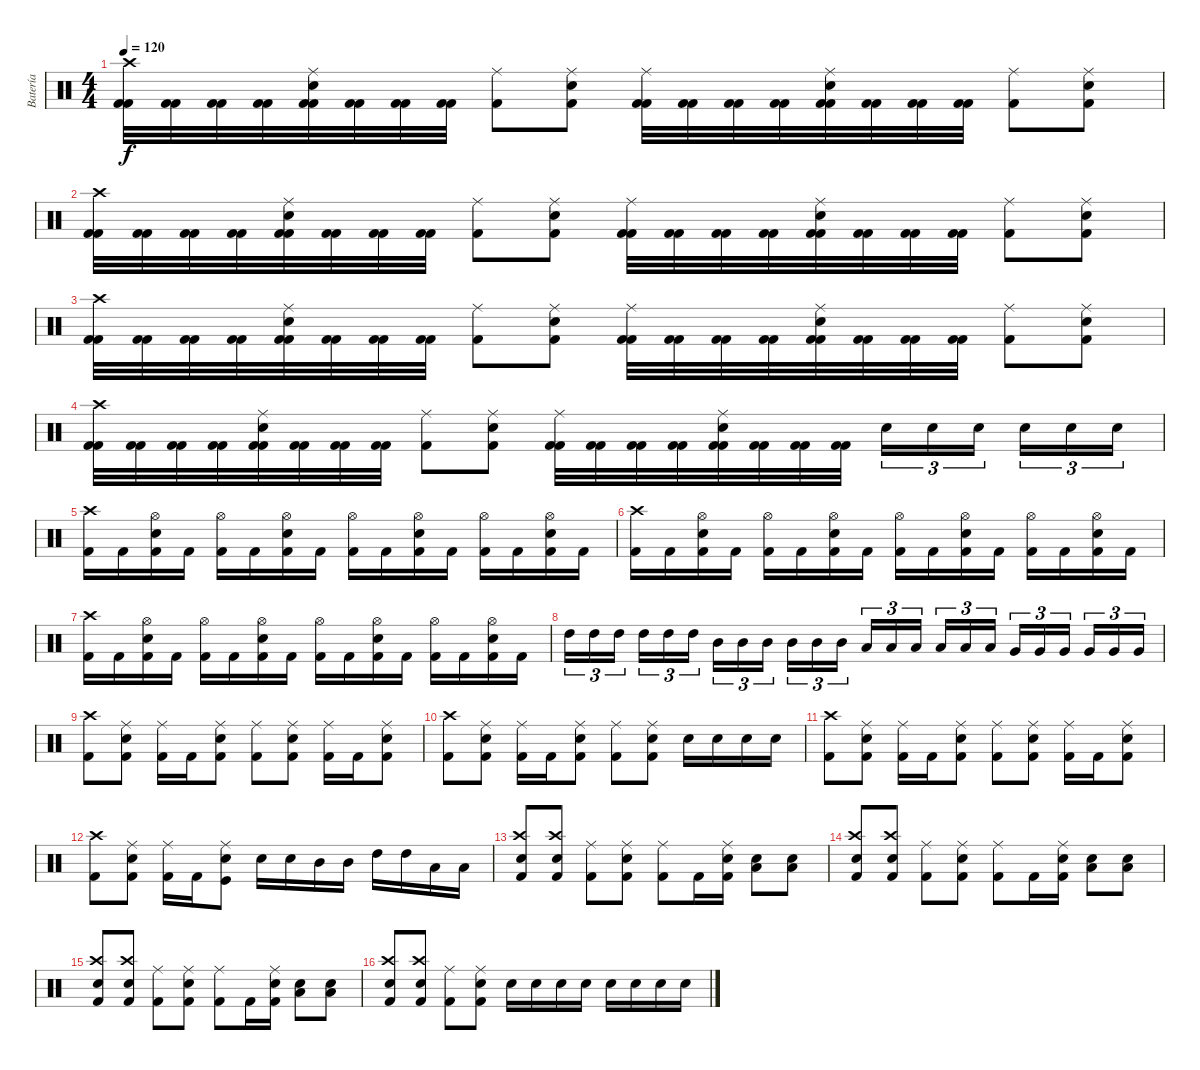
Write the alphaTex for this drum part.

\track ("Batería" "Batería") {instrument percussion}
\staff {score}
\articulation defaults
\ts (4 4)
\tempo 120
\clef neutral
\ks c
("Kick (hit) 2" "Crash high (hit)" "Kick (hit) 2").32{dy f} ("Kick (hit) 2" "Kick (hit) 2").32 ("Kick (hit) 2" "Kick (hit) 2").32 ("Kick (hit) 2" "Kick (hit) 2").32 ("Kick (hit) 2" "Ride (middle)" "Snare (hit) 2" "Kick (hit) 2").32 ("Kick (hit) 2" "Kick (hit) 2").32 ("Kick (hit) 2" "Kick (hit) 2").32 ("Kick (hit) 2" "Kick (hit) 2").32 ("Kick (hit) 2" "Ride (middle)").8 ("Kick (hit) 2" "Ride (middle)" "Snare (hit) 2").8 ("Kick (hit) 2" "Ride (middle)" "Kick (hit) 2").32 ("Kick (hit) 2" "Kick (hit) 2").32 ("Kick (hit) 2" "Kick (hit) 2").32 ("Kick (hit) 2" "Kick (hit) 2").32 ("Kick (hit) 2" "Ride (middle)" "Snare (hit) 2" "Kick (hit) 2").32 ("Kick (hit) 2" "Kick (hit) 2").32 ("Kick (hit) 2" "Kick (hit) 2").32 ("Kick (hit) 2" "Kick (hit) 2").32 ("Kick (hit) 2" "Ride (middle)").8 ("Kick (hit) 2" "Ride (middle)" "Snare (hit) 2").8 |
("Kick (hit) 2" "Crash high (hit)" "Kick (hit) 2").32 ("Kick (hit) 2" "Kick (hit) 2").32 ("Kick (hit) 2" "Kick (hit) 2").32 ("Kick (hit) 2" "Kick (hit) 2").32 ("Kick (hit) 2" "Ride (middle)" "Snare (hit) 2" "Kick (hit) 2").32 ("Kick (hit) 2" "Kick (hit) 2").32 ("Kick (hit) 2" "Kick (hit) 2").32 ("Kick (hit) 2" "Kick (hit) 2").32 ("Kick (hit) 2" "Ride (middle)").8 ("Kick (hit) 2" "Ride (middle)" "Snare (hit) 2").8 ("Kick (hit) 2" "Ride (middle)" "Kick (hit) 2").32 ("Kick (hit) 2" "Kick (hit) 2").32 ("Kick (hit) 2" "Kick (hit) 2").32 ("Kick (hit) 2" "Kick (hit) 2").32 ("Kick (hit) 2" "Ride (middle)" "Snare (hit) 2" "Kick (hit) 2").32 ("Kick (hit) 2" "Kick (hit) 2").32 ("Kick (hit) 2" "Kick (hit) 2").32 ("Kick (hit) 2" "Kick (hit) 2").32 ("Kick (hit) 2" "Ride (middle)").8 ("Kick (hit) 2" "Ride (middle)" "Snare (hit) 2").8 |
("Kick (hit) 2" "Crash high (hit)" "Kick (hit) 2").32 ("Kick (hit) 2" "Kick (hit) 2").32 ("Kick (hit) 2" "Kick (hit) 2").32 ("Kick (hit) 2" "Kick (hit) 2").32 ("Kick (hit) 2" "Ride (middle)" "Snare (hit) 2" "Kick (hit) 2").32 ("Kick (hit) 2" "Kick (hit) 2").32 ("Kick (hit) 2" "Kick (hit) 2").32 ("Kick (hit) 2" "Kick (hit) 2").32 ("Kick (hit) 2" "Ride (middle)").8 ("Kick (hit) 2" "Ride (middle)" "Snare (hit) 2").8 ("Kick (hit) 2" "Ride (middle)" "Kick (hit) 2").32 ("Kick (hit) 2" "Kick (hit) 2").32 ("Kick (hit) 2" "Kick (hit) 2").32 ("Kick (hit) 2" "Kick (hit) 2").32 ("Kick (hit) 2" "Ride (middle)" "Snare (hit) 2" "Kick (hit) 2").32 ("Kick (hit) 2" "Kick (hit) 2").32 ("Kick (hit) 2" "Kick (hit) 2").32 ("Kick (hit) 2" "Kick (hit) 2").32 ("Kick (hit) 2" "Ride (middle)").8 ("Kick (hit) 2" "Ride (middle)" "Snare (hit) 2").8 |
("Kick (hit) 2" "Crash high (hit)" "Kick (hit) 2").32 ("Kick (hit) 2" "Kick (hit) 2").32 ("Kick (hit) 2" "Kick (hit) 2").32 ("Kick (hit) 2" "Kick (hit) 2").32 ("Kick (hit) 2" "Ride (middle)" "Snare (hit) 2" "Kick (hit) 2").32 ("Kick (hit) 2" "Kick (hit) 2").32 ("Kick (hit) 2" "Kick (hit) 2").32 ("Kick (hit) 2" "Kick (hit) 2").32 ("Kick (hit) 2" "Ride (middle)").8 ("Kick (hit) 2" "Ride (middle)" "Snare (hit) 2").8 ("Kick (hit) 2" "Ride (middle)" "Kick (hit) 2").32 ("Kick (hit) 2" "Kick (hit) 2").32 ("Kick (hit) 2" "Kick (hit) 2").32 ("Kick (hit) 2" "Kick (hit) 2").32 ("Kick (hit) 2" "Ride (middle)" "Snare (hit) 2" "Kick (hit) 2").32 ("Kick (hit) 2" "Kick (hit) 2").32 ("Kick (hit) 2" "Kick (hit) 2").32 ("Kick (hit) 2" "Kick (hit) 2").32 "Snare (hit) 2".16{tu (3 2)} "Snare (hit) 2".16{tu (3 2)} "Snare (hit) 2".16{tu (3 2)} "Snare (hit) 2".16{tu (3 2)} "Snare (hit) 2".16{tu (3 2)} "Snare (hit) 2".16{tu (3 2)} |
("Kick (hit) 2" "Crash high (hit)").16 "Kick (hit) 2".16 ("Kick (hit) 2" "Hi-Hat (open)" "Snare (hit) 2").16 "Kick (hit) 2".16 ("Kick (hit) 2" "Hi-Hat (open)").16 "Kick (hit) 2".16 ("Kick (hit) 2" "Hi-Hat (open)" "Snare (hit) 2").16 "Kick (hit) 2".16 ("Kick (hit) 2" "Hi-Hat (open)").16 "Kick (hit) 2".16 ("Kick (hit) 2" "Hi-Hat (open)" "Snare (hit) 2").16 "Kick (hit) 2".16 ("Kick (hit) 2" "Hi-Hat (open)").16 "Kick (hit) 2".16 ("Kick (hit) 2" "Hi-Hat (open)" "Snare (hit) 2").16 "Kick (hit) 2".16 |
("Kick (hit) 2" "Crash high (hit)").16 "Kick (hit) 2".16 ("Kick (hit) 2" "Hi-Hat (open)" "Snare (hit) 2").16 "Kick (hit) 2".16 ("Kick (hit) 2" "Hi-Hat (open)").16 "Kick (hit) 2".16 ("Kick (hit) 2" "Hi-Hat (open)" "Snare (hit) 2").16 "Kick (hit) 2".16 ("Kick (hit) 2" "Hi-Hat (open)").16 "Kick (hit) 2".16 ("Kick (hit) 2" "Hi-Hat (open)" "Snare (hit) 2").16 "Kick (hit) 2".16 ("Kick (hit) 2" "Hi-Hat (open)").16 "Kick (hit) 2".16 ("Kick (hit) 2" "Hi-Hat (open)" "Snare (hit) 2").16 "Kick (hit) 2".16 |
("Kick (hit) 2" "Crash high (hit)").16 "Kick (hit) 2".16 ("Kick (hit) 2" "Hi-Hat (open)" "Snare (hit) 2").16 "Kick (hit) 2".16 ("Kick (hit) 2" "Hi-Hat (open)").16 "Kick (hit) 2".16 ("Kick (hit) 2" "Hi-Hat (open)" "Snare (hit) 2").16 "Kick (hit) 2".16 ("Kick (hit) 2" "Hi-Hat (open)").16 "Kick (hit) 2".16 ("Kick (hit) 2" "Hi-Hat (open)" "Snare (hit) 2").16 "Kick (hit) 2".16 ("Kick (hit) 2" "Hi-Hat (open)").16 "Kick (hit) 2".16 ("Kick (hit) 2" "Hi-Hat (open)" "Snare (hit) 2").16 "Kick (hit) 2".16 |
"High Tom (hit)".16{tu (3 2)} "High Tom (hit)".16{tu (3 2)} "High Tom (hit)".16{tu (3 2)} "High Tom (hit)".16{tu (3 2)} "High Tom (hit)".16{tu (3 2)} "High Tom (hit)".16{tu (3 2)} "Mid Tom (hit)".16{tu (3 2)} "Mid Tom (hit)".16{tu (3 2)} "Mid Tom (hit)".16{tu (3 2)} "Mid Tom (hit)".16{tu (3 2)} "Mid Tom (hit)".16{tu (3 2)} "Mid Tom (hit)".16{tu (3 2)} "Low Tom (hit)".16{tu (3 2)} "Low Tom (hit)".16{tu (3 2)} "Low Tom (hit)".16{tu (3 2)} "Low Tom (hit)".16{tu (3 2)} "Low Tom (hit)".16{tu (3 2)} "Low Tom (hit)".16{tu (3 2)} "Very Low Tom (hit)".16{tu (3 2)} "Very Low Tom (hit)".16{tu (3 2)} "Very Low Tom (hit)".16{tu (3 2)} "Very Low Tom (hit)".16{tu (3 2)} "Very Low Tom (hit)".16{tu (3 2)} "Very Low Tom (hit)".16{tu (3 2)} |
("Crash high (hit)" "Kick (hit) 2").8 ("Ride (middle)" "Kick (hit) 2" "Snare (hit) 2").8 ("Ride (middle)" "Kick (hit) 2").16 "Kick (hit) 2".16 ("Ride (middle)" "Kick (hit) 2" "Snare (hit) 2").8 ("Ride (middle)" "Kick (hit) 2").8 ("Ride (middle)" "Kick (hit) 2" "Snare (hit) 2").8 ("Ride (middle)" "Kick (hit) 2").16 "Kick (hit) 2".16 ("Ride (middle)" "Kick (hit) 2" "Snare (hit) 2").8 |
("Crash high (hit)" "Kick (hit) 2").8 ("Ride (middle)" "Kick (hit) 2" "Snare (hit) 2").8 ("Ride (middle)" "Kick (hit) 2").16 "Kick (hit) 2".16 ("Ride (middle)" "Kick (hit) 2" "Snare (hit) 2").8 ("Ride (middle)" "Kick (hit) 2").8 ("Ride (middle)" "Kick (hit) 2" "Snare (hit) 2").8 "Snare (hit) 2".16 "Snare (hit) 2".16 "Snare (hit) 2".16 "Snare (hit) 2".16 |
("Crash high (hit)" "Kick (hit) 2").8 ("Ride (middle)" "Kick (hit) 2" "Snare (hit) 2").8 ("Ride (middle)" "Kick (hit) 2").16 "Kick (hit) 2".16 ("Ride (middle)" "Kick (hit) 2" "Snare (hit) 2").8 ("Ride (middle)" "Kick (hit) 2").8 ("Ride (middle)" "Kick (hit) 2" "Snare (hit) 2").8 ("Ride (middle)" "Kick (hit) 2").16 "Kick (hit) 2".16 ("Ride (middle)" "Kick (hit) 2" "Snare (hit) 2").8 |
("Crash high (hit)" "Kick (hit) 2").8 ("Ride (middle)" "Kick (hit) 2" "Snare (hit) 2").8 ("Ride (middle)" "Kick (hit) 2").16 "Kick (hit) 2".16 ("Ride (middle)" "Kick (hit)" "Snare (hit) 2").8 "Snare (hit) 2".16 "Snare (hit) 2".16 "Mid Tom (hit)".16 "Mid Tom (hit)".16 "High Tom (hit)".16 "High Tom (hit)".16 "Low Tom (hit)".16 "Low Tom (hit)".16 |
("Crash high (hit)" "Kick (hit) 2" "Snare (hit) 2").8 ("Crash high (hit)" "Kick (hit) 2" "Snare (hit) 2").8 ("Ride (middle)" "Kick (hit) 2").8 ("Ride (middle)" "Kick (hit) 2" "Snare (hit) 2").8 ("Ride (middle)" "Kick (hit) 2").8 "Kick (hit) 2".16 ("Ride (middle)" "Kick (hit) 2" "Snare (hit) 2").16 ("Low Tom (hit)" "Snare (hit) 2").8 ("Low Tom (hit)" "Snare (hit) 2").8 |
("Crash high (hit)" "Kick (hit) 2" "Snare (hit) 2").8 ("Crash high (hit)" "Kick (hit) 2" "Snare (hit) 2").8 ("Ride (middle)" "Kick (hit) 2").8 ("Ride (middle)" "Kick (hit) 2" "Snare (hit) 2").8 ("Ride (middle)" "Kick (hit) 2").8 "Kick (hit) 2".16 ("Ride (middle)" "Kick (hit) 2" "Snare (hit) 2").16 ("Low Tom (hit)" "Snare (hit) 2").8 ("Low Tom (hit)" "Snare (hit) 2").8 |
("Crash high (hit)" "Kick (hit) 2" "Snare (hit) 2").8 ("Crash high (hit)" "Kick (hit) 2" "Snare (hit) 2").8 ("Ride (middle)" "Kick (hit) 2").8 ("Ride (middle)" "Kick (hit) 2" "Snare (hit) 2").8 ("Ride (middle)" "Kick (hit) 2").8 "Kick (hit) 2".16 ("Ride (middle)" "Kick (hit) 2" "Snare (hit) 2").16 ("Low Tom (hit)" "Snare (hit) 2").8 ("Low Tom (hit)" "Snare (hit) 2").8 |
("Crash high (hit)" "Kick (hit) 2" "Snare (hit) 2").8 ("Crash high (hit)" "Kick (hit) 2" "Snare (hit) 2").8 ("Ride (middle)" "Kick (hit) 2").8 ("Ride (middle)" "Kick (hit) 2" "Snare (hit) 2").8 "Snare (hit) 2".16 "Snare (hit) 2".16 "Snare (hit) 2".16 "Snare (hit) 2".16 "Snare (hit) 2".16 "Snare (hit) 2".16 "Snare (hit) 2".16 "Snare (hit) 2".16
